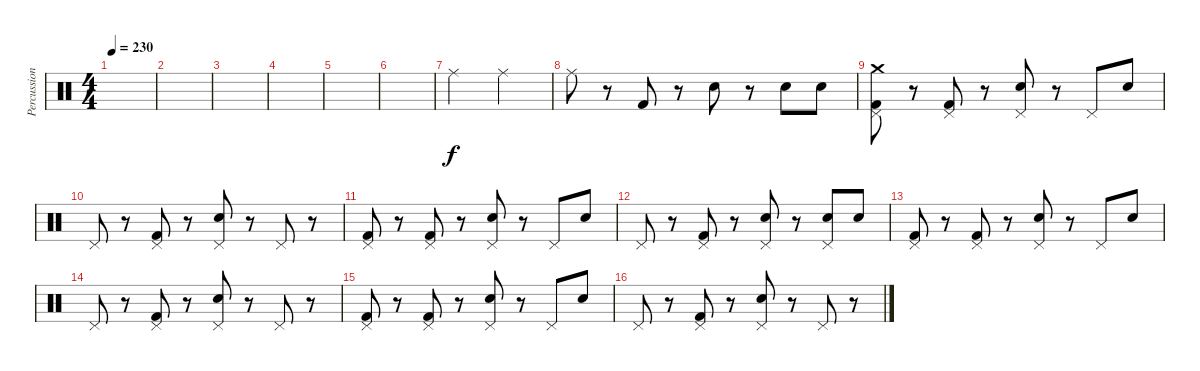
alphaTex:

\track ("Percussion" "Percussion") {instrument percussion}
\staff {score}
\articulation defaults
\ts (4 4)
\tempo 230
\clef neutral
\ks c
|
|
|
|
|
|
"Ride (middle)".2 "Ride (middle)".2 |
"Ride (middle)".8 r.8 "Kick (hit) 2".8 r.8 "Snare (hit) 2".8 r.8 "Snare (hit) 2".8 "Snare (hit) 2".8 |
("Pedal Hi-Hat (hit)" "Kick (hit) 2" "Crash medium (hit)").8 r.8 ("Pedal Hi-Hat (hit)" "Kick (hit) 2").8 r.8 ("Pedal Hi-Hat (hit)" "Snare (hit) 2").8 r.8 "Pedal Hi-Hat (hit)".8 "Snare (hit) 2".8 |
"Pedal Hi-Hat (hit)".8 r.8 ("Pedal Hi-Hat (hit)" "Kick (hit) 2").8 r.8 ("Pedal Hi-Hat (hit)" "Snare (hit) 2").8 r.8 "Pedal Hi-Hat (hit)".8 r.8 |
("Pedal Hi-Hat (hit)" "Kick (hit) 2").8 r.8 ("Pedal Hi-Hat (hit)" "Kick (hit) 2").8 r.8 ("Pedal Hi-Hat (hit)" "Snare (hit) 2").8 r.8 "Pedal Hi-Hat (hit)".8 "Snare (hit) 2".8 |
"Pedal Hi-Hat (hit)".8 r.8 ("Pedal Hi-Hat (hit)" "Kick (hit) 2").8 r.8 ("Pedal Hi-Hat (hit)" "Snare (hit) 2").8 r.8 ("Pedal Hi-Hat (hit)" "Snare (hit) 2").8 "Snare (hit) 2".8 |
("Pedal Hi-Hat (hit)" "Kick (hit) 2").8 r.8 ("Pedal Hi-Hat (hit)" "Kick (hit) 2").8 r.8 ("Pedal Hi-Hat (hit)" "Snare (hit) 2").8 r.8 "Pedal Hi-Hat (hit)".8 "Snare (hit) 2".8 |
"Pedal Hi-Hat (hit)".8 r.8 ("Pedal Hi-Hat (hit)" "Kick (hit) 2").8 r.8 ("Pedal Hi-Hat (hit)" "Snare (hit) 2").8 r.8 "Pedal Hi-Hat (hit)".8 r.8 |
("Pedal Hi-Hat (hit)" "Kick (hit) 2").8 r.8 ("Pedal Hi-Hat (hit)" "Kick (hit) 2").8 r.8 ("Pedal Hi-Hat (hit)" "Snare (hit) 2").8 r.8 "Pedal Hi-Hat (hit)".8 "Snare (hit) 2".8 |
"Pedal Hi-Hat (hit)".8 r.8 ("Pedal Hi-Hat (hit)" "Kick (hit) 2").8 r.8 ("Pedal Hi-Hat (hit)" "Snare (hit) 2").8 r.8 "Pedal Hi-Hat (hit)".8 r.8
